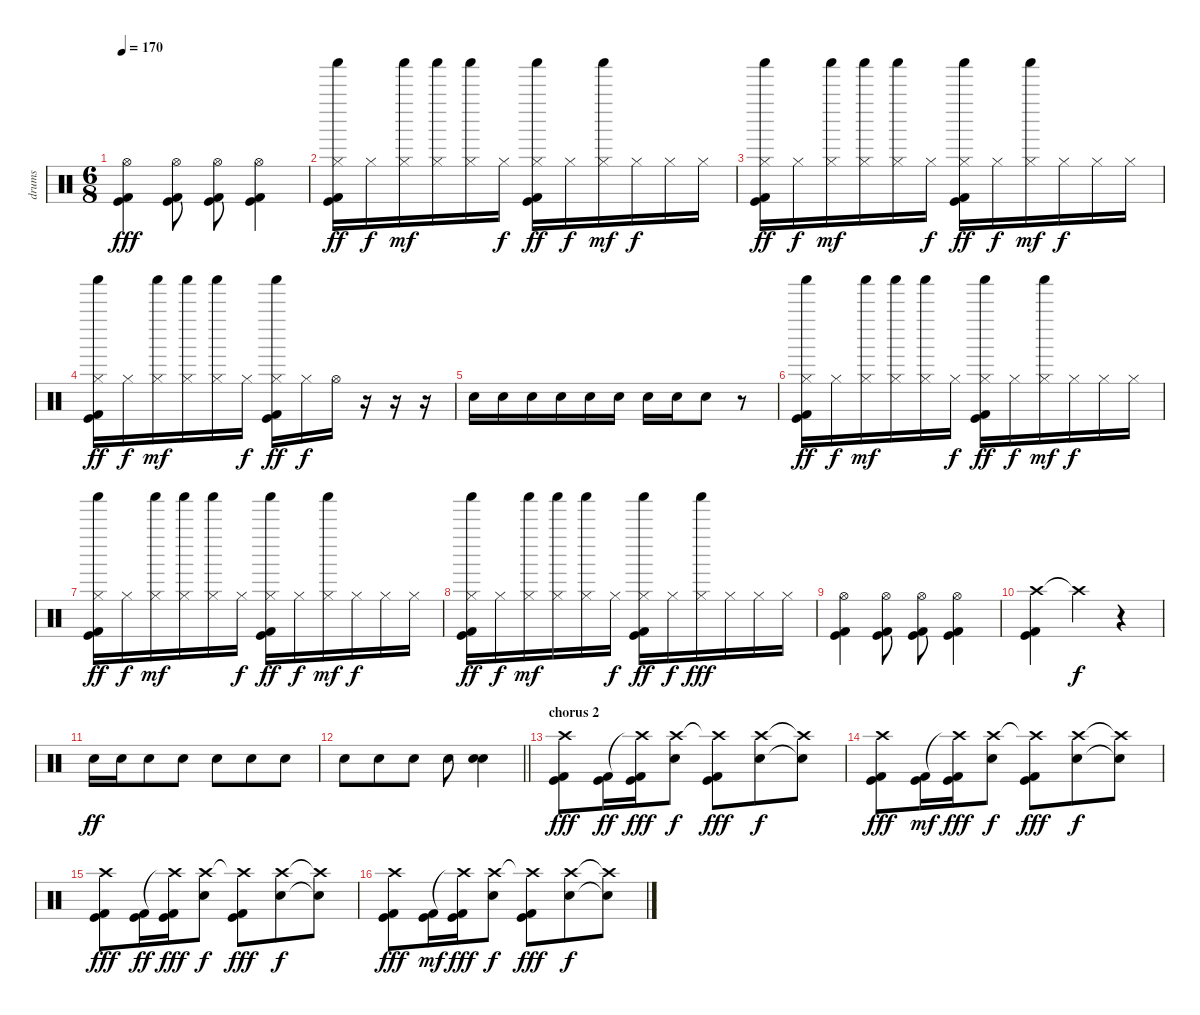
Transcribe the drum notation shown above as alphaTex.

\track ("drums " "drums ") {instrument percussion}
\staff {score}
\articulation defaults
\ts (6 8)
\tempo 170
\clef neutral
\ks c
("Hi-Hat (open)" "Kick (hit) 2" "Kick (hit)").4{dy fff} ("Hi-Hat (open)" "Kick (hit) 2" "Kick (hit)").8 ("Hi-Hat (open)" "Kick (hit) 2" "Kick (hit)").8 ("Hi-Hat (open)" "Kick (hit) 2" "Kick (hit)").4 |
("Shaker (hit)" "Hi-Hat (closed)" "Kick (hit) 2" "Kick (hit)").16{dy ff} "Hi-Hat (closed)".16{dy f} ("Shaker (hit)" "Hi-Hat (closed)").16{dy mf} ("Shaker (hit)" "Hi-Hat (closed)").16 ("Shaker (hit)" "Hi-Hat (closed)").16 "Hi-Hat (closed)".16{dy f} ("Shaker (hit)" "Hi-Hat (closed)" "Kick (hit) 2" "Kick (hit)").16{dy ff} "Hi-Hat (closed)".16{dy f} ("Shaker (hit)" "Hi-Hat (closed)").16{dy mf} "Hi-Hat (closed)".16{dy f} "Hi-Hat (closed)".16 "Hi-Hat (closed)".16 |
("Shaker (hit)" "Hi-Hat (closed)" "Kick (hit) 2" "Kick (hit)").16{dy ff} "Hi-Hat (closed)".16{dy f} ("Shaker (hit)" "Hi-Hat (closed)").16{dy mf} ("Shaker (hit)" "Hi-Hat (closed)").16 ("Shaker (hit)" "Hi-Hat (closed)").16 "Hi-Hat (closed)".16{dy f} ("Shaker (hit)" "Hi-Hat (closed)" "Kick (hit) 2" "Kick (hit)").16{dy ff} "Hi-Hat (closed)".16{dy f} ("Shaker (hit)" "Hi-Hat (closed)").16{dy mf} "Hi-Hat (closed)".16{dy f} "Hi-Hat (closed)".16 "Hi-Hat (closed)".16 |
("Shaker (hit)" "Hi-Hat (closed)" "Kick (hit) 2" "Kick (hit)").16{dy ff} "Hi-Hat (closed)".16{dy f} ("Shaker (hit)" "Hi-Hat (closed)").16{dy mf} ("Shaker (hit)" "Hi-Hat (closed)").16 ("Shaker (hit)" "Hi-Hat (closed)").16 "Hi-Hat (closed)".16{dy f} ("Shaker (hit)" "Hi-Hat (closed)" "Kick (hit) 2" "Kick (hit)").16{dy ff} "Hi-Hat (closed)".16{dy f} "Hi-Hat (open)".16 r.16 r.16 r.16 |
"Electric Snare (hit)".16 "Electric Snare (hit)".16 "Electric Snare (hit)".16 "Electric Snare (hit)".16 "Electric Snare (hit)".16 "Electric Snare (hit)".16 "Electric Snare (hit)".16 "Electric Snare (hit)".16 "Electric Snare (hit)".8 r.8 |
("Shaker (hit)" "Hi-Hat (closed)" "Kick (hit) 2" "Kick (hit)").16{dy ff} "Hi-Hat (closed)".16{dy f} ("Shaker (hit)" "Hi-Hat (closed)").16{dy mf} ("Shaker (hit)" "Hi-Hat (closed)").16 ("Shaker (hit)" "Hi-Hat (closed)").16 "Hi-Hat (closed)".16{dy f} ("Shaker (hit)" "Hi-Hat (closed)" "Kick (hit) 2" "Kick (hit)").16{dy ff} "Hi-Hat (closed)".16{dy f} ("Shaker (hit)" "Hi-Hat (closed)").16{dy mf} "Hi-Hat (closed)".16{dy f} "Hi-Hat (closed)".16 "Hi-Hat (closed)".16 |
("Shaker (hit)" "Hi-Hat (closed)" "Kick (hit) 2" "Kick (hit)").16{dy ff} "Hi-Hat (closed)".16{dy f} ("Shaker (hit)" "Hi-Hat (closed)").16{dy mf} ("Shaker (hit)" "Hi-Hat (closed)").16 ("Shaker (hit)" "Hi-Hat (closed)").16 "Hi-Hat (closed)".16{dy f} ("Shaker (hit)" "Hi-Hat (closed)" "Kick (hit) 2" "Kick (hit)").16{dy ff} "Hi-Hat (closed)".16{dy f} ("Shaker (hit)" "Hi-Hat (closed)").16{dy mf} "Hi-Hat (closed)".16{dy f} "Hi-Hat (closed)".16 "Hi-Hat (closed)".16 |
("Shaker (hit)" "Hi-Hat (closed)" "Kick (hit) 2" "Kick (hit)").16{dy ff} "Hi-Hat (closed)".16{dy f} ("Shaker (hit)" "Hi-Hat (closed)").16{dy mf} ("Shaker (hit)" "Hi-Hat (closed)").16 ("Shaker (hit)" "Hi-Hat (closed)").16 "Hi-Hat (closed)".16{dy f} ("Shaker (hit)" "Hi-Hat (closed)" "Kick (hit) 2" "Kick (hit)").16{dy ff} "Hi-Hat (closed)".16{dy f} ("Shaker (hit)" "Hi-Hat (closed)").16{dy fff} "Hi-Hat (closed)".16 "Hi-Hat (closed)".16 "Hi-Hat (closed)".16 |
("Hi-Hat (open)" "Kick (hit) 2" "Kick (hit)").4 ("Hi-Hat (open)" "Kick (hit) 2" "Kick (hit)").8 ("Hi-Hat (open)" "Kick (hit) 2" "Kick (hit)").8 ("Hi-Hat (open)" "Kick (hit) 2" "Kick (hit)").4 |
("Crash high (hit)" "Kick (hit) 2" "Kick (hit)").4 "Crash high (hit)"{t}.4{dy f} r.4 |
"Electric Snare (hit)".16{dy ff} "Electric Snare (hit)".16 "Electric Snare (hit)".8 "Electric Snare (hit)".8 "Electric Snare (hit)".8 "Electric Snare (hit)".8 "Electric Snare (hit)".8 |
\barLineRight lightlight "Electric Snare (hit)".8 "Electric Snare (hit)".8 "Electric Snare (hit)".8 "Electric Snare (hit)".8
("Electric Snare (hit)" "Snare (hit) 2").4 |
\section ("" "chorus 2")
("Crash high (hit)" "Kick (hit) 2" "Kick (hit)").8{dy fff} ("Kick (hit) 2" "Kick (hit)").16{dy ff} ("Crash high (hit)"{t} "Kick (hit) 2" "Kick (hit)").16{dy fff} ("Crash high (hit)" "Electric Snare (hit)").8{dy f} ("Crash high (hit)"{t} "Kick (hit) 2" "Kick (hit)").8{dy fff} ("Crash high (hit)" "Electric Snare (hit)").8{dy f} ("Crash high (hit)"{t} "Electric Snare (hit)"{t}).8 |
("Crash high (hit)" "Kick (hit) 2" "Kick (hit)").8{dy fff} ("Kick (hit) 2" "Kick (hit)").16{dy mf} ("Crash high (hit)"{t} "Kick (hit) 2" "Kick (hit)").16{dy fff} ("Crash high (hit)" "Electric Snare (hit)").8{dy f} ("Crash high (hit)"{t} "Kick (hit) 2" "Kick (hit)").8{dy fff} ("Crash high (hit)" "Electric Snare (hit)").8{dy f} ("Crash high (hit)"{t} "Electric Snare (hit)"{t}).8 |
("Crash high (hit)" "Kick (hit) 2" "Kick (hit)").8{dy fff} ("Kick (hit) 2" "Kick (hit)").16{dy ff} ("Crash high (hit)"{t} "Kick (hit) 2" "Kick (hit)").16{dy fff} ("Crash high (hit)" "Electric Snare (hit)").8{dy f} ("Crash high (hit)"{t} "Kick (hit) 2" "Kick (hit)").8{dy fff} ("Crash high (hit)" "Electric Snare (hit)").8{dy f} ("Crash high (hit)"{t} "Electric Snare (hit)"{t}).8 |
("Crash high (hit)" "Kick (hit) 2" "Kick (hit)").8{dy fff} ("Kick (hit) 2" "Kick (hit)").16{dy mf} ("Crash high (hit)"{t} "Kick (hit) 2" "Kick (hit)").16{dy fff} ("Crash high (hit)" "Electric Snare (hit)").8{dy f} ("Crash high (hit)"{t} "Kick (hit) 2" "Kick (hit)").8{dy fff} ("Crash high (hit)" "Electric Snare (hit)").8{dy f} ("Crash high (hit)"{t} "Electric Snare (hit)"{t}).8
